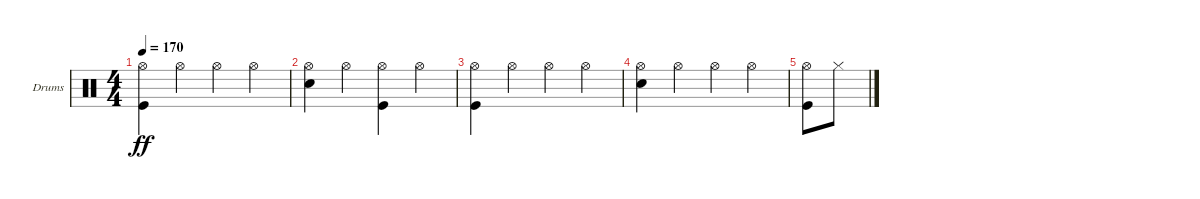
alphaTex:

\defaultSystemsLayout 4
\bracketExtendMode groupsimilarinstruments
\firstSystemTrackNameOrientation horizontal
\otherSystemsTrackNameOrientation horizontal
\track ("Inferno" "Drums") {instrument percussion}
\staff {score}
\articulation defaults
\ts (4 4)
\tempo 170
\clef neutral
\ks c
("Hi-Hat (open)" "Kick (hit)").4{dy ff} "Hi-Hat (open)".4 "Hi-Hat (open)".4 "Hi-Hat (open)".4 |
("Hi-Hat (open)" "Snare (hit) 2").4 "Hi-Hat (open)".4 ("Hi-Hat (open)" "Kick (hit)").4 "Hi-Hat (open)".4 |
("Hi-Hat (open)" "Kick (hit)").4 "Hi-Hat (open)".4 "Hi-Hat (open)".4 "Hi-Hat (open)".4 |
("Hi-Hat (open)" "Snare (hit) 2").4 "Hi-Hat (open)".4 "Hi-Hat (open)".4 "Hi-Hat (open)".4 |
("Kick (hit)" "Hi-Hat (open)").8 "Hi-Hat (closed)".8
